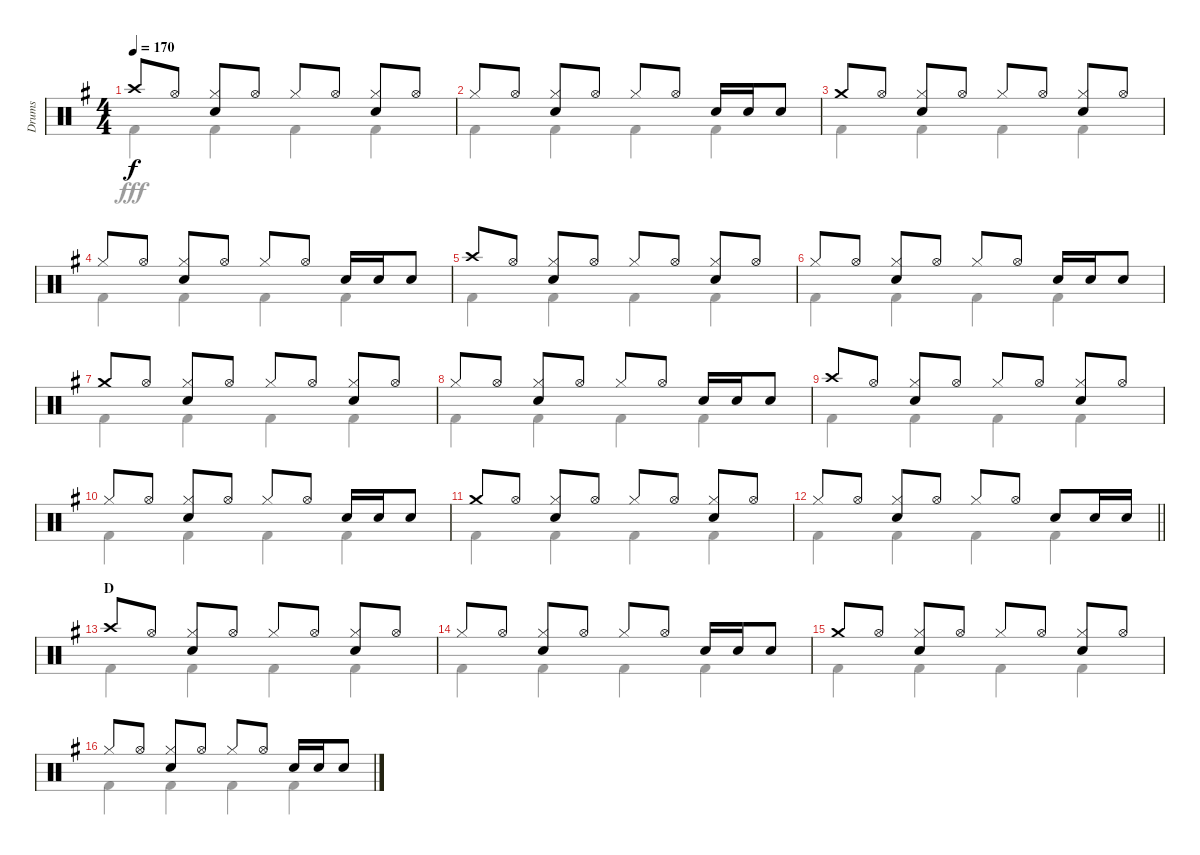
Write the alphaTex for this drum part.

\track ("Drums" "Drums") {instrument percussion}
\staff {score}
\articulation defaults
\voice
\ts (4 4)
\tempo 170
\clef neutral
\ks g "Crash high (hit)".8{dy f} "Hi-Hat (open)".8
("Hi-Hat (closed)" "Snare (hit) 2").8 "Hi-Hat (open)".8 "Hi-Hat (closed)".8 "Hi-Hat (open)".8 ("Hi-Hat (closed)" "Snare (hit) 2").8 "Hi-Hat (open)".8 |
"Hi-Hat (closed)".8 "Hi-Hat (open)".8 ("Hi-Hat (closed)" "Snare (hit) 2").8 "Hi-Hat (open)".8 "Hi-Hat (closed)".8 "Hi-Hat (open)".8 "Snare (hit) 2".16 "Snare (hit) 2".16 "Snare (hit) 2".8 |
"Crash medium (hit)".8 "Hi-Hat (open)".8 ("Hi-Hat (closed)" "Snare (hit) 2").8 "Hi-Hat (open)".8 "Hi-Hat (closed)".8 "Hi-Hat (open)".8 ("Hi-Hat (closed)" "Snare (hit) 2").8 "Hi-Hat (open)".8 |
"Hi-Hat (closed)".8 "Hi-Hat (open)".8 ("Hi-Hat (closed)" "Snare (hit) 2").8 "Hi-Hat (open)".8 "Hi-Hat (closed)".8 "Hi-Hat (open)".8 "Snare (hit) 2".16 "Snare (hit) 2".16 "Snare (hit) 2".8 |
"Crash high (hit)".8 "Hi-Hat (open)".8 ("Hi-Hat (closed)" "Snare (hit) 2").8 "Hi-Hat (open)".8 "Hi-Hat (closed)".8 "Hi-Hat (open)".8 ("Hi-Hat (closed)" "Snare (hit) 2").8 "Hi-Hat (open)".8 |
"Hi-Hat (closed)".8 "Hi-Hat (open)".8 ("Hi-Hat (closed)" "Snare (hit) 2").8 "Hi-Hat (open)".8 "Hi-Hat (closed)".8 "Hi-Hat (open)".8 "Snare (hit) 2".16 "Snare (hit) 2".16 "Snare (hit) 2".8 |
"Crash medium (hit)".8 "Hi-Hat (open)".8 ("Hi-Hat (closed)" "Snare (hit) 2").8 "Hi-Hat (open)".8 "Hi-Hat (closed)".8 "Hi-Hat (open)".8 ("Hi-Hat (closed)" "Snare (hit) 2").8 "Hi-Hat (open)".8 |
"Hi-Hat (closed)".8 "Hi-Hat (open)".8 ("Hi-Hat (closed)" "Snare (hit) 2").8 "Hi-Hat (open)".8 "Hi-Hat (closed)".8 "Hi-Hat (open)".8 "Snare (hit) 2".16 "Snare (hit) 2".16 "Snare (hit) 2".8 |
"Crash high (hit)".8 "Hi-Hat (open)".8 ("Hi-Hat (closed)" "Snare (hit) 2").8 "Hi-Hat (open)".8 "Hi-Hat (closed)".8 "Hi-Hat (open)".8 ("Hi-Hat (closed)" "Snare (hit) 2").8 "Hi-Hat (open)".8 |
"Hi-Hat (closed)".8 "Hi-Hat (open)".8 ("Hi-Hat (closed)" "Snare (hit) 2").8 "Hi-Hat (open)".8 "Hi-Hat (closed)".8 "Hi-Hat (open)".8 "Snare (hit) 2".16 "Snare (hit) 2".16 "Snare (hit) 2".8 |
"Crash medium (hit)".8 "Hi-Hat (open)".8 ("Hi-Hat (closed)" "Snare (hit) 2").8 "Hi-Hat (open)".8 "Hi-Hat (closed)".8 "Hi-Hat (open)".8 ("Hi-Hat (closed)" "Snare (hit) 2").8 "Hi-Hat (open)".8 |
\barLineRight lightlight "Hi-Hat (closed)".8 "Hi-Hat (open)".8
("Hi-Hat (closed)" "Snare (hit) 2").8 "Hi-Hat (open)".8 "Hi-Hat (closed)".8 "Hi-Hat (open)".8 "Snare (hit) 2".8 "Snare (hit) 2".16 "Snare (hit) 2".16 |
\section ("" "D")
"Crash high (hit)".8 "Hi-Hat (open)".8 ("Hi-Hat (closed)" "Snare (hit) 2").8 "Hi-Hat (open)".8 "Hi-Hat (closed)".8 "Hi-Hat (open)".8 ("Hi-Hat (closed)" "Snare (hit) 2").8 "Hi-Hat (open)".8 |
"Hi-Hat (closed)".8 "Hi-Hat (open)".8 ("Hi-Hat (closed)" "Snare (hit) 2").8 "Hi-Hat (open)".8 "Hi-Hat (closed)".8 "Hi-Hat (open)".8 "Snare (hit) 2".16 "Snare (hit) 2".16 "Snare (hit) 2".8 |
"Crash medium (hit)".8 "Hi-Hat (open)".8 ("Hi-Hat (closed)" "Snare (hit) 2").8 "Hi-Hat (open)".8 "Hi-Hat (closed)".8 "Hi-Hat (open)".8 ("Hi-Hat (closed)" "Snare (hit) 2").8 "Hi-Hat (open)".8 |
"Hi-Hat (closed)".8 "Hi-Hat (open)".8 ("Hi-Hat (closed)" "Snare (hit) 2").8 "Hi-Hat (open)".8 "Hi-Hat (closed)".8 "Hi-Hat (open)".8 "Snare (hit) 2".16 "Snare (hit) 2".16 "Snare (hit) 2".8
\voice
\clef neutral
\ottava regular
\simile none
\ks g "Kick (hit) 2".4{dy fff} "Kick (hit) 2".4 "Kick (hit) 2".4 "Kick (hit) 2".4
|
"Kick (hit) 2".4 "Kick (hit) 2".4 "Kick (hit) 2".4 "Kick (hit) 2".4 |
"Kick (hit) 2".4 "Kick (hit) 2".4 "Kick (hit) 2".4 "Kick (hit) 2".4 |
"Kick (hit) 2".4 "Kick (hit) 2".4 "Kick (hit) 2".4 "Kick (hit) 2".4 |
"Kick (hit) 2".4 "Kick (hit) 2".4 "Kick (hit) 2".4 "Kick (hit) 2".4 |
"Kick (hit) 2".4 "Kick (hit) 2".4 "Kick (hit) 2".4 "Kick (hit) 2".4 |
"Kick (hit) 2".4 "Kick (hit) 2".4 "Kick (hit) 2".4 "Kick (hit) 2".4 |
"Kick (hit) 2".4 "Kick (hit) 2".4 "Kick (hit) 2".4 "Kick (hit) 2".4 |
"Kick (hit) 2".4 "Kick (hit) 2".4 "Kick (hit) 2".4 "Kick (hit) 2".4 |
"Kick (hit) 2".4 "Kick (hit) 2".4 "Kick (hit) 2".4 "Kick (hit) 2".4 |
"Kick (hit) 2".4 "Kick (hit) 2".4 "Kick (hit) 2".4 "Kick (hit) 2".4 |
\barLineRight lightlight "Kick (hit) 2".4 "Kick (hit) 2".4 "Kick (hit) 2".4 "Kick (hit) 2".4
|
"Kick (hit) 2".4 "Kick (hit) 2".4 "Kick (hit) 2".4 "Kick (hit) 2".4 |
"Kick (hit) 2".4 "Kick (hit) 2".4 "Kick (hit) 2".4 "Kick (hit) 2".4 |
"Kick (hit) 2".4 "Kick (hit) 2".4 "Kick (hit) 2".4 "Kick (hit) 2".4 |
"Kick (hit) 2".4 "Kick (hit) 2".4 "Kick (hit) 2".4 "Kick (hit) 2".4
